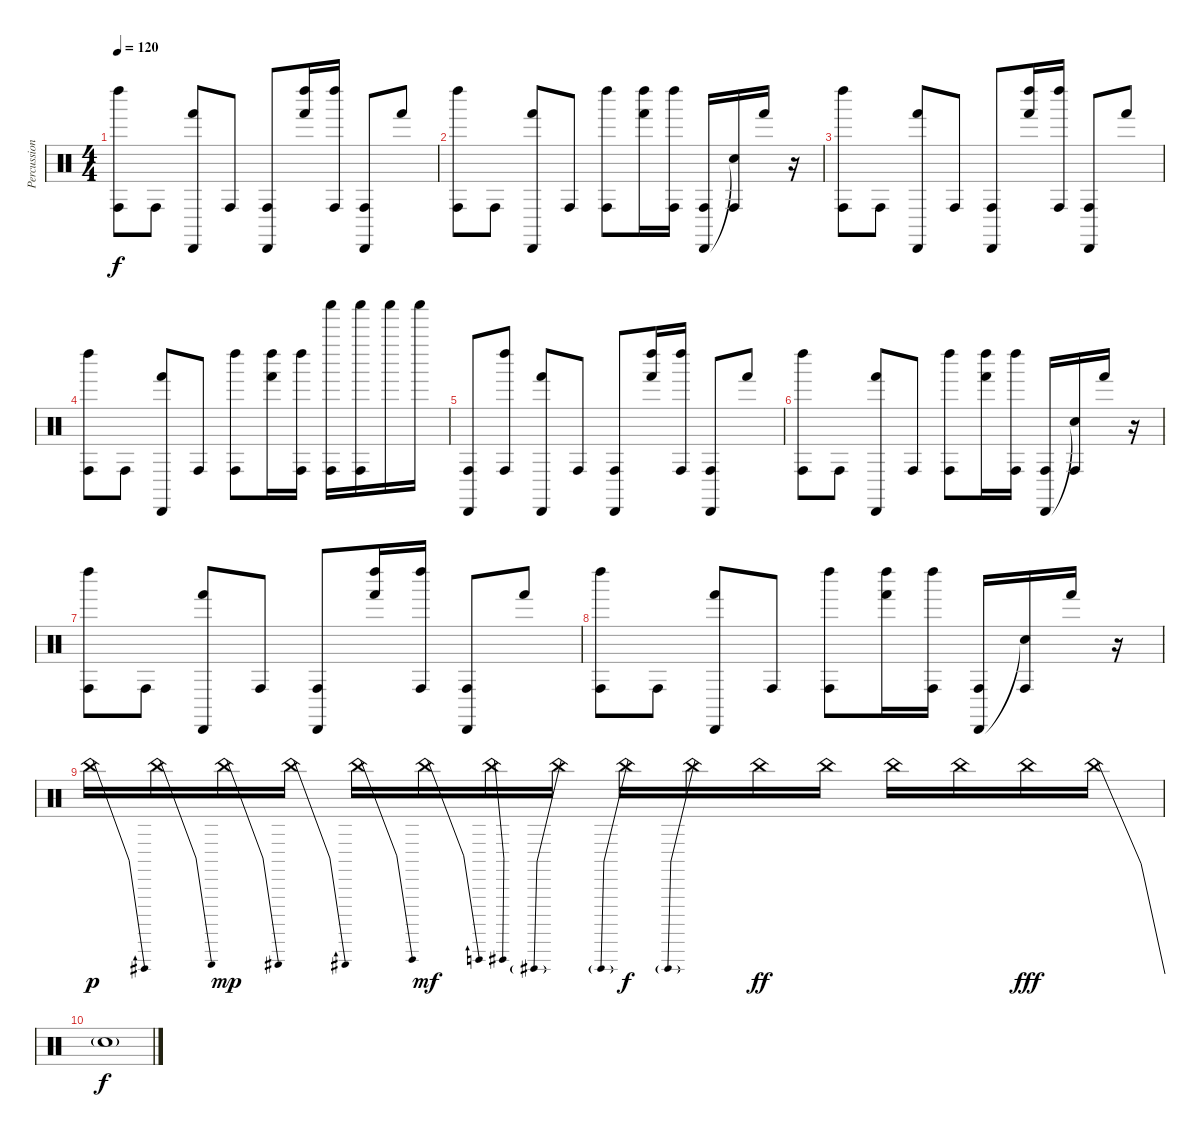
\track ("Percussions" "Percussion") {instrument percussion}
\staff {score}
\articulation defaults
\ts (4 4)
\tempo 120
\clef neutral
\ks c
("Left Maraca (hit)" "Conga high (hit)").8{dy f} "Conga high (hit)".8 ("Cabasa (hit)" "Hand (hit)").8 "Conga high (hit)".8 ("Cabasa (hit)" "Conga high (hit)").8 ("Left Maraca (hit)" "Hand (hit)").16 ("Left Maraca (hit)" "Conga high (hit)").16 ("Cabasa (hit)" "Conga high (hit)").8 "Hand (hit)".8 |
("Left Maraca (hit)" "Conga high (hit)").8 "Conga high (hit)".8 ("Cabasa (hit)" "Hand (hit)").8 "Conga high (hit)".8 ("Left Maraca (hit)" "Conga high (hit)").8 ("Left Maraca (hit)" "Hand (hit)").16 ("Left Maraca (hit)" "Conga high (hit)").16 ("Cabasa (hit)" "Conga high (hit)").16 ("Snare (hit)"{t} "Conga high (hit)").16 "Hand (hit)".16 r.16 |
("Left Maraca (hit)" "Conga high (hit)").8 "Conga high (hit)".8 ("Cabasa (hit)" "Hand (hit)").8 "Conga high (hit)".8 ("Cabasa (hit)" "Conga high (hit)").8 ("Left Maraca (hit)" "Hand (hit)").16 ("Left Maraca (hit)" "Conga high (hit)").16 ("Cabasa (hit)" "Conga high (hit)").8 "Hand (hit)".8 |
("Left Maraca (hit)" "Conga high (hit)").8 "Conga high (hit)".8 ("Cabasa (hit)" "Hand (hit)").8 "Conga high (hit)".8 ("Left Maraca (hit)" "Conga high (hit)").8 ("Left Maraca (hit)" "Hand (hit)").16 ("Left Maraca (hit)" "Conga high (hit)").16 ("Shaker (hit)" "Conga high (hit)").16 ("Shaker (hit)" "Conga high (hit)").16 "Shaker (hit)".16 "Shaker (hit)".16 |
("Cabasa (hit)" "Conga high (hit)").8 ("Left Maraca (hit)" "Conga high (hit)").8 ("Cabasa (hit)" "Hand (hit)").8 "Conga high (hit)".8 ("Cabasa (hit)" "Conga high (hit)").8 ("Left Maraca (hit)" "Hand (hit)").16 ("Left Maraca (hit)" "Conga high (hit)").16 ("Cabasa (hit)" "Conga high (hit)").8 "Hand (hit)".8 |
("Left Maraca (hit)" "Conga high (hit)").8 "Conga high (hit)".8 ("Cabasa (hit)" "Hand (hit)").8 "Conga high (hit)".8 ("Left Maraca (hit)" "Conga high (hit)").8 ("Left Maraca (hit)" "Hand (hit)").16 ("Left Maraca (hit)" "Conga high (hit)").16 ("Cabasa (hit)" "Conga high (hit)").16 ("Snare (hit)"{t} "Conga high (hit)").16 "Hand (hit)".16 r.16 |
("Left Maraca (hit)" "Conga high (hit)").8 "Conga high (hit)".8 ("Cabasa (hit)" "Hand (hit)").8 "Conga high (hit)".8 ("Cabasa (hit)" "Conga high (hit)").8 ("Left Maraca (hit)" "Hand (hit)").16 ("Left Maraca (hit)" "Conga high (hit)").16 ("Cabasa (hit)" "Conga high (hit)").8 "Hand (hit)".8 |
("Left Maraca (hit)" "Conga high (hit)").8 "Conga high (hit)".8 ("Cabasa (hit)" "Hand (hit)").8 "Conga high (hit)".8 ("Left Maraca (hit)" "Conga high (hit)").8 ("Left Maraca (hit)" "Hand (hit)").16 ("Left Maraca (hit)" "Conga high (hit)").16 ("Cabasa (hit)" "Conga high (hit)").16 ("Snare (hit)"{t} "Conga high (hit)").16 "Hand (hit)".16 r.16 |
"China (hit)"{be (bend 0 0 60 1)}.16{dy p} "China (hit)"{be (bend 0 0 60 2)}.16 "China (hit)"{be (bend 0 0 60 4)}.16{dy mp} "China (hit)"{be (bend 0 0 60 5)}.16 "China (hit)"{be (bend 0 0 60 6)}.16 "China (hit)"{be (bend 0 0 60 7)}.16{dy mf} "China (hit)"{be (bend 0 0 60 8)}.16 "China (hit)"{be (prebend 0 9 60 9)}.16 "China (hit)"{be (prebend 0 10 60 10)}.16{dy f} "China (hit)"{be (prebend 0 9 60 9)}.16 "China (hit)"{be (custom 0 8 20 8 40 0 60 0)}.16{dy ff} "China (hit)"{be (custom 0 7 20 7 40 0 60 0)}.16 "China (hit)"{be (custom 0 5 20 5 40 0 60 0)}.16 "China (hit)"{be (custom 0 4 20 4 40 0 60 0)}.16 "China (hit)"{be (custom 0 3 20 3 40 0 60 0)}.16{dy fff} "China (hit)"{be (custom 0 12 20 12 40 0 60 0)}.16 |
"Snare (hit)"{t}.1{dy f}
